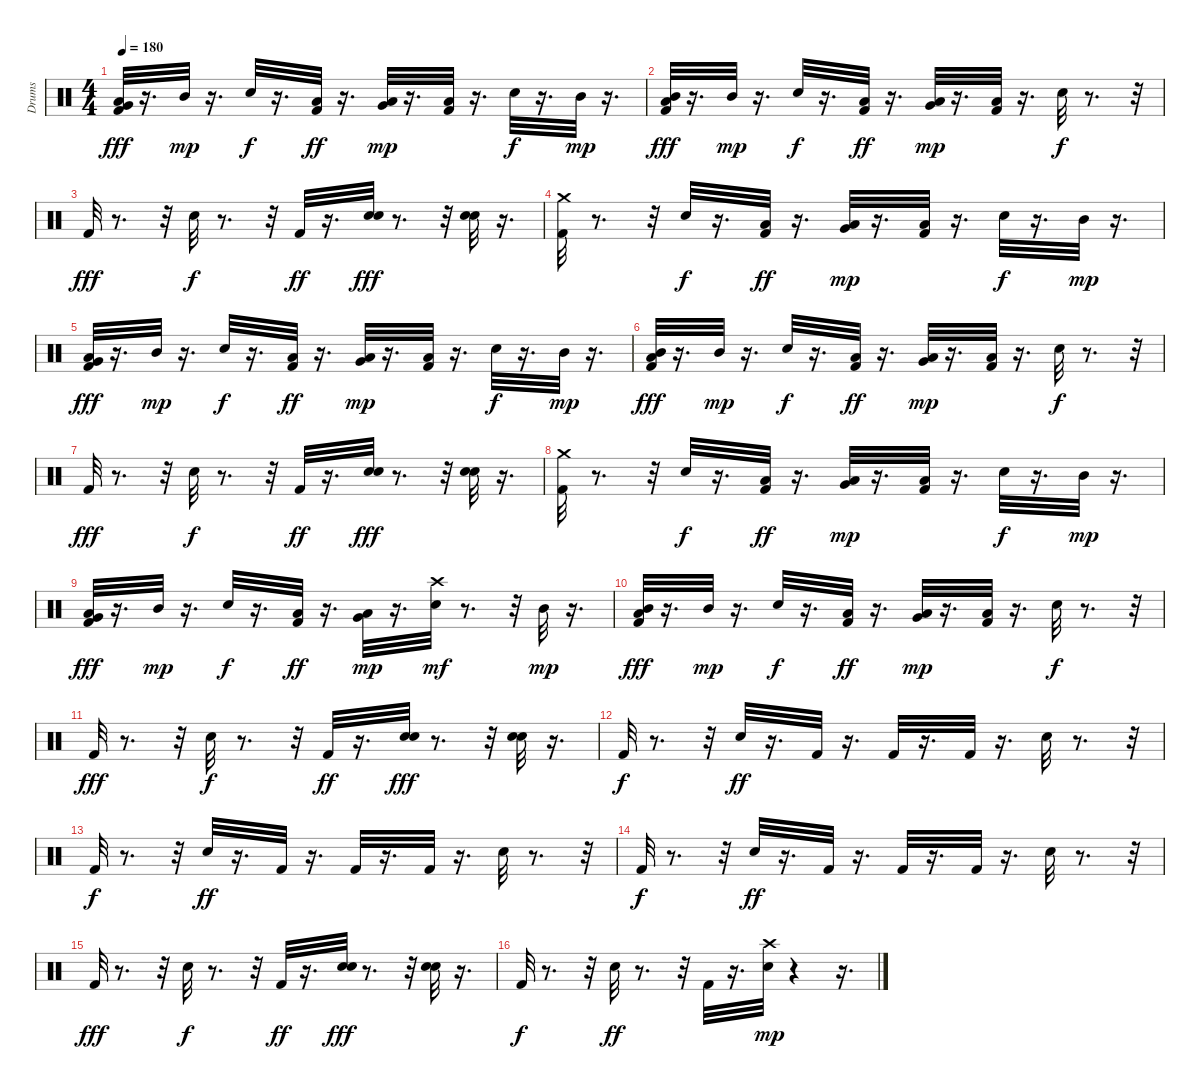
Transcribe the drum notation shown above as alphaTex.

\track ("Drums" "Drums") {instrument percussion}
\staff {score}
\articulation defaults
\ts (4 4)
\tempo 180
\clef neutral
\ks c
("Low Tom (hit)" "Very Low Tom (hit)" "Kick (hit) 2").32{dy fff} r.16{d} "Mid Tom (hit)".32{dy mp} r.16{d} "Snare (hit) 2".32{dy f} r.16{d} ("Low Tom (hit)" "Kick (hit) 2").32{dy ff} r.16{d} ("Very Low Tom (hit)" "Low Floor Tom (hit)").32{dy mp} r.16{d} ("Low Tom (hit)" "Kick (hit) 2").32 r.16{d} "Snare (hit) 2".32{dy f} r.16{d} "Mid Tom (hit)".32{dy mp} r.16{d} |
("Mid Tom (hit)" "Low Tom (hit)" "Kick (hit) 2").32{dy fff} r.16{d} "Mid Tom (hit)".32{dy mp} r.16{d} "Snare (hit) 2".32{dy f} r.16{d} ("Low Tom (hit)" "Kick (hit) 2").32{dy ff} r.16{d} ("Very Low Tom (hit)" "Low Floor Tom (hit)").32{dy mp} r.16{d} ("Low Tom (hit)" "Kick (hit) 2").32 r.16{d} "Snare (hit) 2".32{dy f} r.8{d} r.32 |
"Kick (hit) 2".32{dy fff} r.8{d} r.32 "Snare (hit) 2".32{dy f} r.8{d} r.32 "Kick (hit) 2".32{dy ff} r.16{d} ("Electric Snare (hit)" "Snare (hit) 2").32{dy fff} r.8{d} r.32 ("Electric Snare (hit)" "Snare (hit) 2").32 r.16{d} |
("Kick (hit) 2" "Crash medium (hit)").32 r.8{d} r.32 "Snare (hit) 2".32{dy f} r.16{d} ("Low Tom (hit)" "Kick (hit) 2").32{dy ff} r.16{d} ("Very Low Tom (hit)" "Low Floor Tom (hit)").32{dy mp} r.16{d} ("Low Tom (hit)" "Kick (hit) 2").32 r.16{d} "Snare (hit) 2".32{dy f} r.16{d} "Mid Tom (hit)".32{dy mp} r.16{d} |
("Low Tom (hit)" "Very Low Tom (hit)" "Kick (hit) 2").32{dy fff} r.16{d} "Mid Tom (hit)".32{dy mp} r.16{d} "Snare (hit) 2".32{dy f} r.16{d} ("Low Tom (hit)" "Kick (hit) 2").32{dy ff} r.16{d} ("Very Low Tom (hit)" "Low Floor Tom (hit)").32{dy mp} r.16{d} ("Low Tom (hit)" "Kick (hit) 2").32 r.16{d} "Snare (hit) 2".32{dy f} r.16{d} "Mid Tom (hit)".32{dy mp} r.16{d} |
("Mid Tom (hit)" "Low Tom (hit)" "Kick (hit) 2").32{dy fff} r.16{d} "Mid Tom (hit)".32{dy mp} r.16{d} "Snare (hit) 2".32{dy f} r.16{d} ("Low Tom (hit)" "Kick (hit) 2").32{dy ff} r.16{d} ("Very Low Tom (hit)" "Low Floor Tom (hit)").32{dy mp} r.16{d} ("Low Tom (hit)" "Kick (hit) 2").32 r.16{d} "Snare (hit) 2".32{dy f} r.8{d} r.32 |
"Kick (hit) 2".32{dy fff} r.8{d} r.32 "Snare (hit) 2".32{dy f} r.8{d} r.32 "Kick (hit) 2".32{dy ff} r.16{d} ("Electric Snare (hit)" "Snare (hit) 2").32{dy fff} r.8{d} r.32 ("Electric Snare (hit)" "Snare (hit) 2").32 r.16{d} |
("Kick (hit) 2" "Crash medium (hit)").32 r.8{d} r.32 "Snare (hit) 2".32{dy f} r.16{d} ("Low Tom (hit)" "Kick (hit) 2").32{dy ff} r.16{d} ("Very Low Tom (hit)" "Low Floor Tom (hit)").32{dy mp} r.16{d} ("Low Tom (hit)" "Kick (hit) 2").32 r.16{d} "Snare (hit) 2".32{dy f} r.16{d} "Mid Tom (hit)".32{dy mp} r.16{d} |
("Low Tom (hit)" "Very Low Tom (hit)" "Kick (hit) 2").32{dy fff} r.16{d} "Mid Tom (hit)".32{dy mp} r.16{d} "Snare (hit) 2".32{dy f} r.16{d} ("Low Tom (hit)" "Kick (hit) 2").32{dy ff} r.16{d} ("Very Low Tom (hit)" "Low Floor Tom (hit)").32{dy mp} r.16{d} ("Crash high (hit)" "Snare (hit) 2").32{dy mf} r.8{d} r.32 "Mid Tom (hit)".32{dy mp} r.16{d} |
("Mid Tom (hit)" "Low Tom (hit)" "Kick (hit) 2").32{dy fff} r.16{d} "Mid Tom (hit)".32{dy mp} r.16{d} "Snare (hit) 2".32{dy f} r.16{d} ("Low Tom (hit)" "Kick (hit) 2").32{dy ff} r.16{d} ("Very Low Tom (hit)" "Low Floor Tom (hit)").32{dy mp} r.16{d} ("Low Tom (hit)" "Kick (hit) 2").32 r.16{d} "Snare (hit) 2".32{dy f} r.8{d} r.32 |
"Kick (hit) 2".32{dy fff} r.8{d} r.32 "Snare (hit) 2".32{dy f} r.8{d} r.32 "Kick (hit) 2".32{dy ff} r.16{d} ("Electric Snare (hit)" "Snare (hit) 2").32{dy fff} r.8{d} r.32 ("Electric Snare (hit)" "Snare (hit) 2").32 r.16{d} |
"Kick (hit) 2".32{dy f} r.8{d} r.32 "Snare (hit) 2".32{dy ff} r.16{d} "Kick (hit) 2".32 r.16{d} "Kick (hit) 2".32 r.16{d} "Kick (hit) 2".32 r.16{d} "Snare (hit) 2".32 r.8{d} r.32 |
"Kick (hit) 2".32{dy f} r.8{d} r.32 "Snare (hit) 2".32{dy ff} r.16{d} "Kick (hit) 2".32 r.16{d} "Kick (hit) 2".32 r.16{d} "Kick (hit) 2".32 r.16{d} "Snare (hit) 2".32 r.8{d} r.32 |
"Kick (hit) 2".32{dy f} r.8{d} r.32 "Snare (hit) 2".32{dy ff} r.16{d} "Kick (hit) 2".32 r.16{d} "Kick (hit) 2".32 r.16{d} "Kick (hit) 2".32 r.16{d} "Snare (hit) 2".32 r.8{d} r.32 |
"Kick (hit) 2".32{dy fff} r.8{d} r.32 "Snare (hit) 2".32{dy f} r.8{d} r.32 "Kick (hit) 2".32{dy ff} r.16{d} ("Electric Snare (hit)" "Snare (hit) 2").32{dy fff} r.8{d} r.32 ("Electric Snare (hit)" "Snare (hit) 2").32 r.16{d} |
"Kick (hit) 2".32{dy f} r.8{d} r.32 "Snare (hit) 2".32{dy ff} r.8{d} r.32 "Kick (hit) 2".32 r.16{d} ("Snare (hit) 2" "Crash high (hit)").32{dy mp} r.4 r.16{d}
